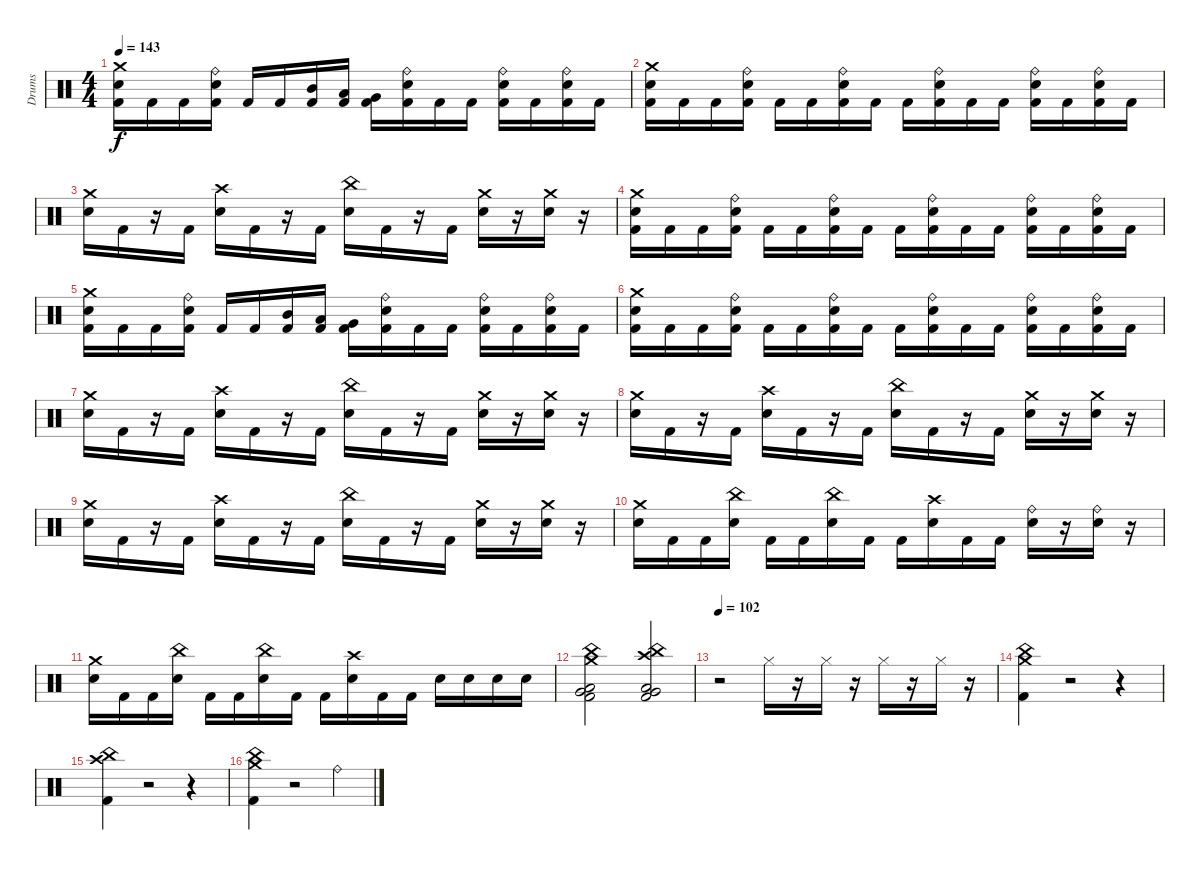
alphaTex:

\track ("Drums" "Drums") {instrument percussion}
\staff {score}
\articulation defaults
\ts (4 4)
\tempo 143
\clef neutral
\ks c
("Crash medium (hit)" "Electric Snare (hit)" "Kick (hit) 2").16{dy f} "Kick (hit) 2".16 "Kick (hit) 2".16 ("Ride (bell)" "Electric Snare (hit)" "Kick (hit) 2").16 "Kick (hit) 2".16 "Kick (hit) 2".16 ("Mid Tom (hit)" "Kick (hit) 2").16 ("Low Tom (hit)" "Kick (hit) 2").16 ("Very Low Tom (hit)" "Kick (hit) 2").16 ("Ride (bell)" "Electric Snare (hit)" "Kick (hit) 2").16 "Kick (hit) 2".16 "Kick (hit) 2".16 ("Ride (bell)" "Electric Snare (hit)" "Kick (hit) 2").16 "Kick (hit) 2".16 ("Ride (bell)" "Electric Snare (hit)" "Kick (hit) 2").16 "Kick (hit) 2".16 |
("Crash medium (hit)" "Electric Snare (hit)" "Kick (hit) 2").16 "Kick (hit) 2".16 "Kick (hit) 2".16 ("Ride (bell)" "Electric Snare (hit)" "Kick (hit) 2").16 "Kick (hit) 2".16 "Kick (hit) 2".16 ("Ride (bell)" "Electric Snare (hit)" "Kick (hit) 2").16 "Kick (hit) 2".16 "Kick (hit) 2".16 ("Ride (bell)" "Electric Snare (hit)" "Kick (hit) 2").16 "Kick (hit) 2".16 "Kick (hit) 2".16 ("Ride (bell)" "Electric Snare (hit)" "Kick (hit) 2").16 "Kick (hit) 2".16 ("Ride (bell)" "Electric Snare (hit)" "Kick (hit) 2").16 "Kick (hit) 2".16 |
("Crash medium (hit)" "Electric Snare (hit)").16 "Kick (hit) 2".16 r.16 "Kick (hit) 2".16 ("Crash high (hit)" "Electric Snare (hit)").16 "Kick (hit) 2".16 r.16 "Kick (hit) 2".16 ("China (hit)" "Electric Snare (hit)").16 "Kick (hit) 2".16 r.16 "Kick (hit) 2".16 ("Crash medium (hit)" "Electric Snare (hit)").16 r.16 ("Crash medium (hit)" "Electric Snare (hit)").16 r.16 |
("Crash medium (hit)" "Electric Snare (hit)" "Kick (hit) 2").16 "Kick (hit) 2".16 "Kick (hit) 2".16 ("Ride (bell)" "Electric Snare (hit)" "Kick (hit) 2").16 "Kick (hit) 2".16 "Kick (hit) 2".16 ("Ride (bell)" "Electric Snare (hit)" "Kick (hit) 2").16 "Kick (hit) 2".16 "Kick (hit) 2".16 ("Ride (bell)" "Electric Snare (hit)" "Kick (hit) 2").16 "Kick (hit) 2".16 "Kick (hit) 2".16 ("Ride (bell)" "Electric Snare (hit)" "Kick (hit) 2").16 "Kick (hit) 2".16 ("Ride (bell)" "Electric Snare (hit)" "Kick (hit) 2").16 "Kick (hit) 2".16 |
("Crash medium (hit)" "Electric Snare (hit)" "Kick (hit) 2").16 "Kick (hit) 2".16 "Kick (hit) 2".16 ("Ride (bell)" "Electric Snare (hit)" "Kick (hit) 2").16 "Kick (hit) 2".16 "Kick (hit) 2".16 ("Mid Tom (hit)" "Kick (hit) 2").16 ("Low Tom (hit)" "Kick (hit) 2").16 ("Very Low Tom (hit)" "Kick (hit) 2").16 ("Ride (bell)" "Electric Snare (hit)" "Kick (hit) 2").16 "Kick (hit) 2".16 "Kick (hit) 2".16 ("Ride (bell)" "Electric Snare (hit)" "Kick (hit) 2").16 "Kick (hit) 2".16 ("Ride (bell)" "Electric Snare (hit)" "Kick (hit) 2").16 "Kick (hit) 2".16 |
("Crash medium (hit)" "Electric Snare (hit)" "Kick (hit) 2").16 "Kick (hit) 2".16 "Kick (hit) 2".16 ("Ride (bell)" "Electric Snare (hit)" "Kick (hit) 2").16 "Kick (hit) 2".16 "Kick (hit) 2".16 ("Ride (bell)" "Electric Snare (hit)" "Kick (hit) 2").16 "Kick (hit) 2".16 "Kick (hit) 2".16 ("Ride (bell)" "Electric Snare (hit)" "Kick (hit) 2").16 "Kick (hit) 2".16 "Kick (hit) 2".16 ("Ride (bell)" "Electric Snare (hit)" "Kick (hit) 2").16 "Kick (hit) 2".16 ("Ride (bell)" "Electric Snare (hit)" "Kick (hit) 2").16 "Kick (hit) 2".16 |
("Crash medium (hit)" "Electric Snare (hit)").16 "Kick (hit) 2".16 r.16 "Kick (hit) 2".16 ("Crash high (hit)" "Electric Snare (hit)").16 "Kick (hit) 2".16 r.16 "Kick (hit) 2".16 ("China (hit)" "Electric Snare (hit)").16 "Kick (hit) 2".16 r.16 "Kick (hit) 2".16 ("Crash medium (hit)" "Electric Snare (hit)").16 r.16 ("Crash medium (hit)" "Electric Snare (hit)").16 r.16 |
("Crash medium (hit)" "Electric Snare (hit)").16 "Kick (hit) 2".16 r.16 "Kick (hit) 2".16 ("Crash high (hit)" "Electric Snare (hit)").16 "Kick (hit) 2".16 r.16 "Kick (hit) 2".16 ("China (hit)" "Electric Snare (hit)").16 "Kick (hit) 2".16 r.16 "Kick (hit) 2".16 ("Crash medium (hit)" "Electric Snare (hit)").16 r.16 ("Crash medium (hit)" "Electric Snare (hit)").16 r.16 |
("Crash medium (hit)" "Electric Snare (hit)").16 "Kick (hit) 2".16 r.16 "Kick (hit) 2".16 ("Crash high (hit)" "Electric Snare (hit)").16 "Kick (hit) 2".16 r.16 "Kick (hit) 2".16 ("China (hit)" "Electric Snare (hit)").16 "Kick (hit) 2".16 r.16 "Kick (hit) 2".16 ("Crash medium (hit)" "Electric Snare (hit)").16 r.16 ("Crash medium (hit)" "Electric Snare (hit)").16 r.16 |
("Crash medium (hit)" "Electric Snare (hit)").16 "Kick (hit) 2".16 "Kick (hit) 2".16 ("China (hit)" "Electric Snare (hit)").16 "Kick (hit) 2".16 "Kick (hit) 2".16 ("China (hit)" "Electric Snare (hit)").16 "Kick (hit) 2".16 "Kick (hit) 2".16 ("Crash high (hit)" "Electric Snare (hit)").16 "Kick (hit) 2".16 "Kick (hit) 2".16 ("Ride (bell)" "Electric Snare (hit)").16 r.16 ("Ride (bell)" "Electric Snare (hit)").16 r.16 |
("Crash medium (hit)" "Electric Snare (hit)").16 "Kick (hit) 2".16 "Kick (hit) 2".16 ("China (hit)" "Electric Snare (hit)").16 "Kick (hit) 2".16 "Kick (hit) 2".16 ("China (hit)" "Electric Snare (hit)").16 "Kick (hit) 2".16 "Kick (hit) 2".16 ("Crash high (hit)" "Electric Snare (hit)").16 "Kick (hit) 2".16 "Kick (hit) 2".16 "Electric Snare (hit)".16 "Electric Snare (hit)".16 "Electric Snare (hit)".16 "Electric Snare (hit)".16 |
("China (hit)" "Crash medium (hit)" "Very Low Tom (hit)" "Low Floor Tom (hit)" "Kick (hit) 2").2 ("China (hit)" "Crash high (hit)" "Very Low Tom (hit)" "Low Floor Tom (hit)" "Kick (hit) 2").2 |
\tempo 102
r.2 "Hi-Hat (closed)".16 r.16 "Hi-Hat (closed)".16 r.16 "Hi-Hat (closed)".16 r.16 "Hi-Hat (closed)".16 r.16 |
\section ("" "")
("China (hit)" "Crash medium (hit)" "Kick (hit) 2").4 r.2 r.4 |
("China (hit)" "Crash high (hit)" "Kick (hit) 2").4 r.2 r.4 |
("China (hit)" "Crash medium (hit)" "Kick (hit) 2").4 r.2 "Ride (bell)".4
